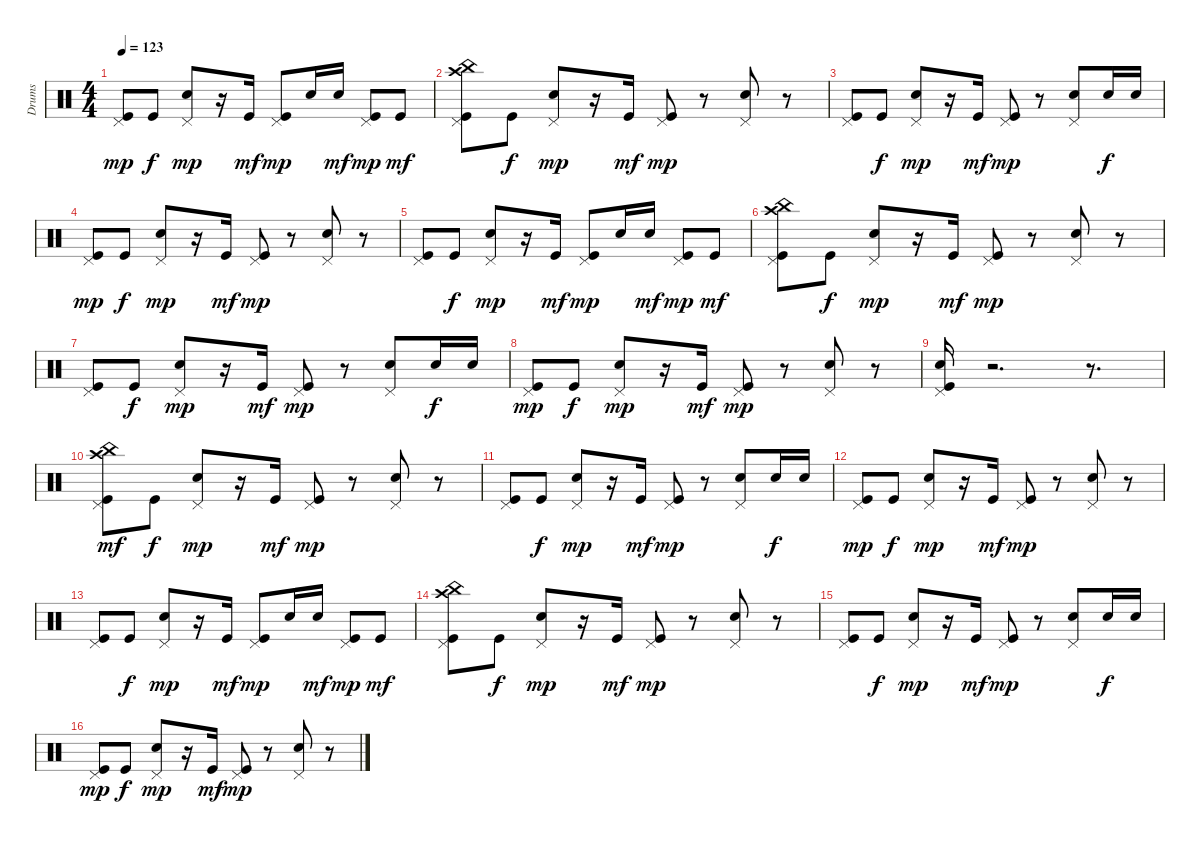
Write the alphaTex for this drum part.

\track ("Drums" "Drums") {instrument percussion}
\staff {score}
\articulation defaults
\ts (4 4)
\tempo 123
\clef neutral
\ks c
("Pedal Hi-Hat (hit)" "Kick (hit)").8{dy mp} "Kick (hit)".8{dy f} ("Pedal Hi-Hat (hit)" "Electric Snare (hit)").8{dy mp} r.16 "Kick (hit)".16{dy mf} ("Pedal Hi-Hat (hit)" "Kick (hit)").8{dy mp} "Electric Snare (hit)".16 "Electric Snare (hit)".16{dy mf} ("Kick (hit)" "Pedal Hi-Hat (hit)").8{dy mp} "Kick (hit)".8{dy mf} |
("Pedal Hi-Hat (hit)" "Kick (hit)" "Crash high (hit)" "China (hit)").8 "Kick (hit)".8{dy f} ("Pedal Hi-Hat (hit)" "Electric Snare (hit)").8{dy mp} r.16 "Kick (hit)".16{dy mf} ("Pedal Hi-Hat (hit)" "Kick (hit)").8{dy mp} r.8 ("Pedal Hi-Hat (hit)" "Electric Snare (hit)").8 r.8 |
("Pedal Hi-Hat (hit)" "Kick (hit)").8 "Kick (hit)".8{dy f} ("Electric Snare (hit)" "Pedal Hi-Hat (hit)").8{dy mp} r.16 "Kick (hit)".16{dy mf} ("Pedal Hi-Hat (hit)" "Kick (hit)").8{dy mp} r.8 ("Pedal Hi-Hat (hit)" "Electric Snare (hit)").8 "Electric Snare (hit)".16{dy f} "Electric Snare (hit)".16 |
("Pedal Hi-Hat (hit)" "Kick (hit)").8{dy mp} "Kick (hit)".8{dy f} ("Pedal Hi-Hat (hit)" "Electric Snare (hit)").8{dy mp} r.16 "Kick (hit)".16{dy mf} ("Pedal Hi-Hat (hit)" "Kick (hit)").8{dy mp} r.8 ("Pedal Hi-Hat (hit)" "Electric Snare (hit)").8 r.8 |
("Pedal Hi-Hat (hit)" "Kick (hit)").8 "Kick (hit)".8{dy f} ("Pedal Hi-Hat (hit)" "Electric Snare (hit)").8{dy mp} r.16 "Kick (hit)".16{dy mf} ("Pedal Hi-Hat (hit)" "Kick (hit)").8{dy mp} "Electric Snare (hit)".16 "Electric Snare (hit)".16{dy mf} ("Kick (hit)" "Pedal Hi-Hat (hit)").8{dy mp} "Kick (hit)".8{dy mf} |
("Pedal Hi-Hat (hit)" "Kick (hit)" "Crash high (hit)" "China (hit)").8 "Kick (hit)".8{dy f} ("Pedal Hi-Hat (hit)" "Electric Snare (hit)").8{dy mp} r.16 "Kick (hit)".16{dy mf} ("Pedal Hi-Hat (hit)" "Kick (hit)").8{dy mp} r.8 ("Pedal Hi-Hat (hit)" "Electric Snare (hit)").8 r.8 |
("Pedal Hi-Hat (hit)" "Kick (hit)").8 "Kick (hit)".8{dy f} ("Electric Snare (hit)" "Pedal Hi-Hat (hit)").8{dy mp} r.16 "Kick (hit)".16{dy mf} ("Pedal Hi-Hat (hit)" "Kick (hit)").8{dy mp} r.8 ("Pedal Hi-Hat (hit)" "Electric Snare (hit)").8 "Electric Snare (hit)".16{dy f} "Electric Snare (hit)".16 |
("Pedal Hi-Hat (hit)" "Kick (hit)").8{dy mp} "Kick (hit)".8{dy f} ("Pedal Hi-Hat (hit)" "Electric Snare (hit)").8{dy mp} r.16 "Kick (hit)".16{dy mf} ("Pedal Hi-Hat (hit)" "Kick (hit)").8{dy mp} r.8 ("Pedal Hi-Hat (hit)" "Electric Snare (hit)").8 r.8 |
("Pedal Hi-Hat (hit)" "Electric Snare (hit)" "Kick (hit)").16 r.2{d} r.8{d} |
("Pedal Hi-Hat (hit)" "Kick (hit)" "Crash high (hit)" "China (hit)").8{dy mf} "Kick (hit)".8{dy f} ("Pedal Hi-Hat (hit)" "Electric Snare (hit)").8{dy mp} r.16 "Kick (hit)".16{dy mf} ("Pedal Hi-Hat (hit)" "Kick (hit)").8{dy mp} r.8 ("Pedal Hi-Hat (hit)" "Electric Snare (hit)").8 r.8 |
("Pedal Hi-Hat (hit)" "Kick (hit)").8 "Kick (hit)".8{dy f} ("Electric Snare (hit)" "Pedal Hi-Hat (hit)").8{dy mp} r.16 "Kick (hit)".16{dy mf} ("Pedal Hi-Hat (hit)" "Kick (hit)").8{dy mp} r.8 ("Pedal Hi-Hat (hit)" "Electric Snare (hit)").8 "Electric Snare (hit)".16{dy f} "Electric Snare (hit)".16 |
("Pedal Hi-Hat (hit)" "Kick (hit)").8{dy mp} "Kick (hit)".8{dy f} ("Pedal Hi-Hat (hit)" "Electric Snare (hit)").8{dy mp} r.16 "Kick (hit)".16{dy mf} ("Pedal Hi-Hat (hit)" "Kick (hit)").8{dy mp} r.8 ("Pedal Hi-Hat (hit)" "Electric Snare (hit)").8 r.8 |
("Pedal Hi-Hat (hit)" "Kick (hit)").8 "Kick (hit)".8{dy f} ("Pedal Hi-Hat (hit)" "Electric Snare (hit)").8{dy mp} r.16 "Kick (hit)".16{dy mf} ("Pedal Hi-Hat (hit)" "Kick (hit)").8{dy mp} "Electric Snare (hit)".16 "Electric Snare (hit)".16{dy mf} ("Kick (hit)" "Pedal Hi-Hat (hit)").8{dy mp} "Kick (hit)".8{dy mf} |
("Pedal Hi-Hat (hit)" "Kick (hit)" "Crash high (hit)" "China (hit)").8 "Kick (hit)".8{dy f} ("Pedal Hi-Hat (hit)" "Electric Snare (hit)").8{dy mp} r.16 "Kick (hit)".16{dy mf} ("Pedal Hi-Hat (hit)" "Kick (hit)").8{dy mp} r.8 ("Pedal Hi-Hat (hit)" "Electric Snare (hit)").8 r.8 |
("Pedal Hi-Hat (hit)" "Kick (hit)").8 "Kick (hit)".8{dy f} ("Electric Snare (hit)" "Pedal Hi-Hat (hit)").8{dy mp} r.16 "Kick (hit)".16{dy mf} ("Pedal Hi-Hat (hit)" "Kick (hit)").8{dy mp} r.8 ("Pedal Hi-Hat (hit)" "Electric Snare (hit)").8 "Electric Snare (hit)".16{dy f} "Electric Snare (hit)".16 |
("Pedal Hi-Hat (hit)" "Kick (hit)").8{dy mp} "Kick (hit)".8{dy f} ("Pedal Hi-Hat (hit)" "Electric Snare (hit)").8{dy mp} r.16 "Kick (hit)".16{dy mf} ("Pedal Hi-Hat (hit)" "Kick (hit)").8{dy mp} r.8 ("Pedal Hi-Hat (hit)" "Electric Snare (hit)").8 r.8
